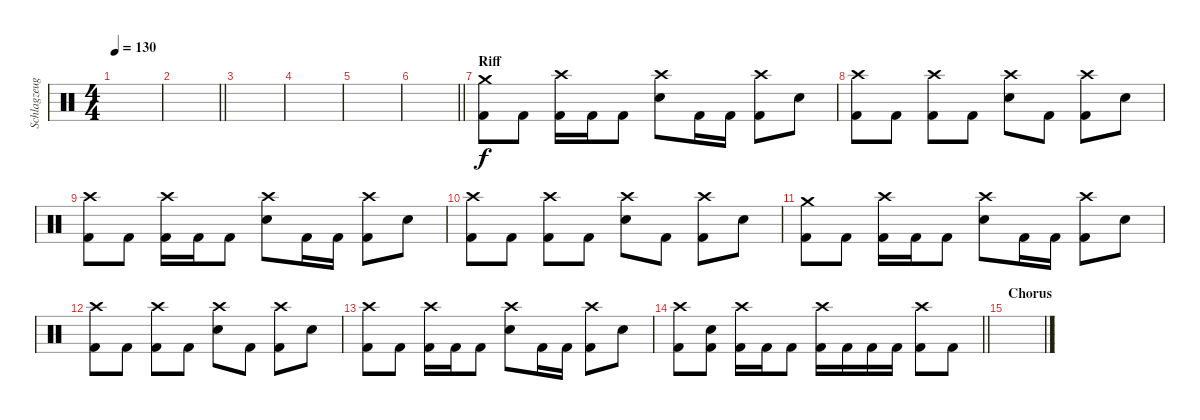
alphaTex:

\track ("Schlagzeug" "Schlagzeug") {instrument percussion}
\staff {score}
\articulation defaults
\ts (4 4)
\tempo 130
\clef neutral
\ks c
|
\barLineRight lightlight
|
|
|
|
\barLineRight lightlight
|
\section ("" "Riff")
("Crash medium (hit)" "Kick (hit) 2").8 "Kick (hit) 2".8 ("Crash high (hit)" "Kick (hit) 2").16 "Kick (hit) 2".16 "Kick (hit) 2".8 ("Crash high (hit)" "Electric Snare (hit)").8 "Kick (hit) 2".16 "Kick (hit) 2".16 ("Crash high (hit)" "Kick (hit) 2").8 "Electric Snare (hit)".8 |
("Crash high (hit)" "Kick (hit) 2").8 "Kick (hit) 2".8 ("Crash high (hit)" "Kick (hit) 2").8 "Kick (hit) 2".8 ("Crash high (hit)" "Electric Snare (hit)").8 "Kick (hit) 2".8 ("Crash high (hit)" "Kick (hit) 2").8 "Electric Snare (hit)".8 |
("Crash high (hit)" "Kick (hit) 2").8 "Kick (hit) 2".8 ("Crash high (hit)" "Kick (hit) 2").16 "Kick (hit) 2".16 "Kick (hit) 2".8 ("Crash high (hit)" "Electric Snare (hit)").8 "Kick (hit) 2".16 "Kick (hit) 2".16 ("Crash high (hit)" "Kick (hit) 2").8 "Electric Snare (hit)".8 |
("Crash high (hit)" "Kick (hit) 2").8 "Kick (hit) 2".8 ("Crash high (hit)" "Kick (hit) 2").8 "Kick (hit) 2".8 ("Crash high (hit)" "Electric Snare (hit)").8 "Kick (hit) 2".8 ("Crash high (hit)" "Kick (hit) 2").8 "Electric Snare (hit)".8 |
("Crash medium (hit)" "Kick (hit) 2").8 "Kick (hit) 2".8 ("Crash high (hit)" "Kick (hit) 2").16 "Kick (hit) 2".16 "Kick (hit) 2".8 ("Crash high (hit)" "Electric Snare (hit)").8 "Kick (hit) 2".16 "Kick (hit) 2".16 ("Crash high (hit)" "Kick (hit) 2").8 "Electric Snare (hit)".8 |
("Crash high (hit)" "Kick (hit) 2").8 "Kick (hit) 2".8 ("Crash high (hit)" "Kick (hit) 2").8 "Kick (hit) 2".8 ("Crash high (hit)" "Electric Snare (hit)").8 "Kick (hit) 2".8 ("Crash high (hit)" "Kick (hit) 2").8 "Electric Snare (hit)".8 |
("Crash high (hit)" "Kick (hit) 2").8 "Kick (hit) 2".8 ("Crash high (hit)" "Kick (hit) 2").16 "Kick (hit) 2".16 "Kick (hit) 2".8 ("Crash high (hit)" "Electric Snare (hit)").8 "Kick (hit) 2".16 "Kick (hit) 2".16 ("Crash high (hit)" "Kick (hit) 2").8 "Electric Snare (hit)".8 |
\barLineRight lightlight
("Crash high (hit)" "Kick (hit) 2").8 ("Snare (hit) 2" "Kick (hit) 2").8 ("Crash high (hit)" "Kick (hit) 2").16 "Kick (hit) 2".16 "Kick (hit) 2".8 ("Crash high (hit)" "Kick (hit) 2").16 "Kick (hit) 2".16 "Kick (hit) 2".16 "Kick (hit) 2".16 ("Crash high (hit)" "Kick (hit) 2").8 "Kick (hit) 2".8 |
\section ("" "Chorus")
